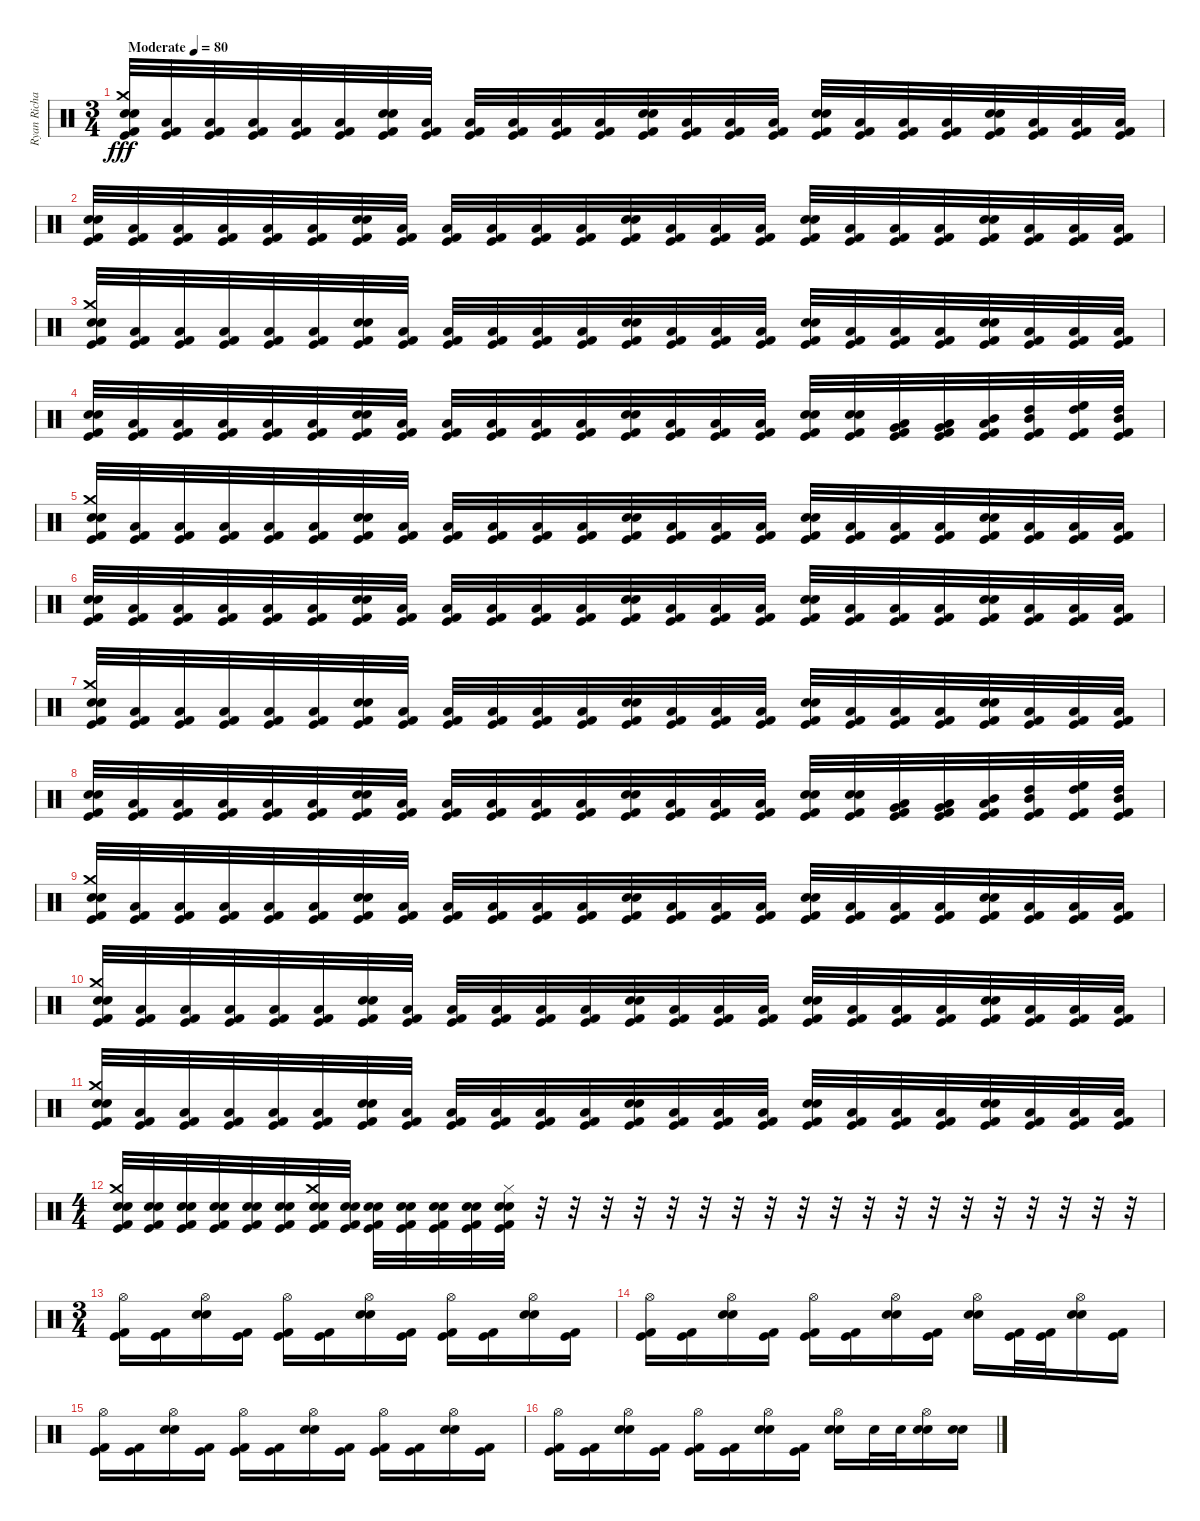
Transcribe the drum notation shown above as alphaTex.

\track ("Ryan Richards" "Ryan Richa") {instrument percussion}
\staff {score}
\articulation defaults
\ts (3 4)
\tempo (80 "Moderate")
\clef neutral
\ks c
("Kick (hit)" "Crash medium (hit)" "Snare (hit) 2" "Electric Snare (hit)" "Kick (hit) 2").32{dy fff} ("Kick (hit)" "Low Floor Tom (hit)" "Kick (hit) 2").32 ("Kick (hit)" "Low Floor Tom (hit)" "Kick (hit) 2").32 ("Kick (hit)" "Low Floor Tom (hit)" "Kick (hit) 2").32 ("Kick (hit)" "Low Floor Tom (hit)" "Kick (hit) 2").32 ("Kick (hit)" "Low Floor Tom (hit)" "Kick (hit) 2").32 ("Kick (hit)" "Snare (hit) 2" "Electric Snare (hit)" "Kick (hit) 2").32 ("Kick (hit)" "Low Floor Tom (hit)" "Kick (hit) 2").32 ("Kick (hit)" "Low Floor Tom (hit)" "Kick (hit) 2").32 ("Kick (hit)" "Low Floor Tom (hit)" "Kick (hit) 2").32 ("Kick (hit)" "Low Floor Tom (hit)" "Kick (hit) 2").32 ("Kick (hit)" "Low Floor Tom (hit)" "Kick (hit) 2").32 ("Kick (hit)" "Snare (hit) 2" "Electric Snare (hit)" "Kick (hit) 2").32 ("Kick (hit)" "Low Floor Tom (hit)" "Kick (hit) 2").32 ("Kick (hit)" "Low Floor Tom (hit)" "Kick (hit) 2").32 ("Kick (hit)" "Low Floor Tom (hit)" "Kick (hit) 2").32 ("Kick (hit)" "Snare (hit) 2" "Electric Snare (hit)" "Kick (hit) 2").32 ("Kick (hit)" "Low Floor Tom (hit)" "Kick (hit) 2").32 ("Kick (hit)" "Low Floor Tom (hit)" "Kick (hit) 2").32 ("Kick (hit)" "Low Floor Tom (hit)" "Kick (hit) 2").32 ("Kick (hit)" "Snare (hit) 2" "Electric Snare (hit)" "Kick (hit) 2").32 ("Kick (hit)" "Low Floor Tom (hit)" "Kick (hit) 2").32 ("Kick (hit)" "Low Floor Tom (hit)" "Kick (hit) 2").32 ("Kick (hit)" "Low Floor Tom (hit)" "Kick (hit) 2").32 |
("Kick (hit)" "Snare (hit) 2" "Electric Snare (hit)" "Kick (hit) 2").32 ("Kick (hit)" "Low Floor Tom (hit)" "Kick (hit) 2").32 ("Kick (hit)" "Low Floor Tom (hit)" "Kick (hit) 2").32 ("Kick (hit)" "Low Floor Tom (hit)" "Kick (hit) 2").32 ("Kick (hit)" "Low Floor Tom (hit)" "Kick (hit) 2").32 ("Kick (hit)" "Low Floor Tom (hit)" "Kick (hit) 2").32 ("Kick (hit)" "Snare (hit) 2" "Electric Snare (hit)" "Kick (hit) 2").32 ("Kick (hit)" "Low Floor Tom (hit)" "Kick (hit) 2").32 ("Kick (hit)" "Low Floor Tom (hit)" "Kick (hit) 2").32 ("Kick (hit)" "Low Floor Tom (hit)" "Kick (hit) 2").32 ("Kick (hit)" "Low Floor Tom (hit)" "Kick (hit) 2").32 ("Kick (hit)" "Low Floor Tom (hit)" "Kick (hit) 2").32 ("Kick (hit)" "Snare (hit) 2" "Electric Snare (hit)" "Kick (hit) 2").32 ("Kick (hit)" "Low Floor Tom (hit)" "Kick (hit) 2").32 ("Kick (hit)" "Low Floor Tom (hit)" "Kick (hit) 2").32 ("Kick (hit)" "Low Floor Tom (hit)" "Kick (hit) 2").32 ("Kick (hit)" "Snare (hit) 2" "Electric Snare (hit)" "Kick (hit) 2").32 ("Kick (hit)" "Low Floor Tom (hit)" "Kick (hit) 2").32 ("Kick (hit)" "Low Floor Tom (hit)" "Kick (hit) 2").32 ("Kick (hit)" "Low Floor Tom (hit)" "Kick (hit) 2").32 ("Kick (hit)" "Snare (hit) 2" "Electric Snare (hit)" "Kick (hit) 2").32 ("Kick (hit)" "Low Floor Tom (hit)" "Kick (hit) 2").32 ("Kick (hit)" "Low Floor Tom (hit)" "Kick (hit) 2").32 ("Kick (hit)" "Low Floor Tom (hit)" "Kick (hit) 2").32 |
("Kick (hit)" "Crash medium (hit)" "Snare (hit) 2" "Electric Snare (hit)" "Kick (hit) 2").32 ("Kick (hit)" "Low Floor Tom (hit)" "Kick (hit) 2").32 ("Kick (hit)" "Low Floor Tom (hit)" "Kick (hit) 2").32 ("Kick (hit)" "Low Floor Tom (hit)" "Kick (hit) 2").32 ("Kick (hit)" "Low Floor Tom (hit)" "Kick (hit) 2").32 ("Kick (hit)" "Low Floor Tom (hit)" "Kick (hit) 2").32 ("Kick (hit)" "Snare (hit) 2" "Electric Snare (hit)" "Kick (hit) 2").32 ("Kick (hit)" "Low Floor Tom (hit)" "Kick (hit) 2").32 ("Kick (hit)" "Low Floor Tom (hit)" "Kick (hit) 2").32 ("Kick (hit)" "Low Floor Tom (hit)" "Kick (hit) 2").32 ("Kick (hit)" "Low Floor Tom (hit)" "Kick (hit) 2").32 ("Kick (hit)" "Low Floor Tom (hit)" "Kick (hit) 2").32 ("Kick (hit)" "Snare (hit) 2" "Electric Snare (hit)" "Kick (hit) 2").32 ("Kick (hit)" "Low Floor Tom (hit)" "Kick (hit) 2").32 ("Kick (hit)" "Low Floor Tom (hit)" "Kick (hit) 2").32 ("Kick (hit)" "Low Floor Tom (hit)" "Kick (hit) 2").32 ("Kick (hit)" "Snare (hit) 2" "Electric Snare (hit)" "Kick (hit) 2").32 ("Kick (hit)" "Low Floor Tom (hit)" "Kick (hit) 2").32 ("Kick (hit)" "Low Floor Tom (hit)" "Kick (hit) 2").32 ("Kick (hit)" "Low Floor Tom (hit)" "Kick (hit) 2").32 ("Kick (hit)" "Snare (hit) 2" "Electric Snare (hit)" "Kick (hit) 2").32 ("Kick (hit)" "Low Floor Tom (hit)" "Kick (hit) 2").32 ("Kick (hit)" "Low Floor Tom (hit)" "Kick (hit) 2").32 ("Kick (hit)" "Low Floor Tom (hit)" "Kick (hit) 2").32 |
("Kick (hit)" "Snare (hit) 2" "Electric Snare (hit)" "Kick (hit) 2").32 ("Kick (hit)" "Low Floor Tom (hit)" "Kick (hit) 2").32 ("Kick (hit)" "Low Floor Tom (hit)" "Kick (hit) 2").32 ("Kick (hit)" "Low Floor Tom (hit)" "Kick (hit) 2").32 ("Kick (hit)" "Low Floor Tom (hit)" "Kick (hit) 2").32 ("Kick (hit)" "Low Floor Tom (hit)" "Kick (hit) 2").32 ("Kick (hit)" "Snare (hit) 2" "Electric Snare (hit)" "Kick (hit) 2").32 ("Kick (hit)" "Low Floor Tom (hit)" "Kick (hit) 2").32 ("Kick (hit)" "Low Floor Tom (hit)" "Kick (hit) 2").32 ("Kick (hit)" "Low Floor Tom (hit)" "Kick (hit) 2").32 ("Kick (hit)" "Low Floor Tom (hit)" "Kick (hit) 2").32 ("Kick (hit)" "Low Floor Tom (hit)" "Kick (hit) 2").32 ("Kick (hit)" "Snare (hit) 2" "Electric Snare (hit)" "Kick (hit) 2").32 ("Kick (hit)" "Low Floor Tom (hit)" "Kick (hit) 2").32 ("Kick (hit)" "Low Floor Tom (hit)" "Kick (hit) 2").32 ("Kick (hit)" "Low Floor Tom (hit)" "Kick (hit) 2").32 ("Kick (hit)" "Snare (hit) 2" "Electric Snare (hit)" "Kick (hit) 2").32 ("Kick (hit)" "Snare (hit) 2" "Electric Snare (hit)" "Kick (hit) 2").32 ("Kick (hit)" "Very Low Tom (hit)" "Low Floor Tom (hit)" "Kick (hit) 2").32 ("Kick (hit)" "Low Tom (hit)" "Very Low Tom (hit)" "Kick (hit) 2").32 ("Kick (hit)" "Mid Tom (hit)" "Low Tom (hit)" "Kick (hit) 2").32 ("Kick (hit)" "High Tom (hit)" "Mid Tom (hit)" "Kick (hit) 2").32 ("Kick (hit)" "High Floor Tom (hit)" "High Tom (hit)" "Kick (hit) 2").32 ("Kick (hit)" "High Tom (hit)" "Mid Tom (hit)" "Kick (hit) 2").32 |
("Kick (hit)" "Crash medium (hit)" "Snare (hit) 2" "Electric Snare (hit)" "Kick (hit) 2").32 ("Kick (hit)" "Low Floor Tom (hit)" "Kick (hit) 2").32 ("Kick (hit)" "Low Floor Tom (hit)" "Kick (hit) 2").32 ("Kick (hit)" "Low Floor Tom (hit)" "Kick (hit) 2").32 ("Kick (hit)" "Low Floor Tom (hit)" "Kick (hit) 2").32 ("Kick (hit)" "Low Floor Tom (hit)" "Kick (hit) 2").32 ("Kick (hit)" "Snare (hit) 2" "Electric Snare (hit)" "Kick (hit) 2").32 ("Kick (hit)" "Low Floor Tom (hit)" "Kick (hit) 2").32 ("Kick (hit)" "Low Floor Tom (hit)" "Kick (hit) 2").32 ("Kick (hit)" "Low Floor Tom (hit)" "Kick (hit) 2").32 ("Kick (hit)" "Low Floor Tom (hit)" "Kick (hit) 2").32 ("Kick (hit)" "Low Floor Tom (hit)" "Kick (hit) 2").32 ("Kick (hit)" "Snare (hit) 2" "Electric Snare (hit)" "Kick (hit) 2").32 ("Kick (hit)" "Low Floor Tom (hit)" "Kick (hit) 2").32 ("Kick (hit)" "Low Floor Tom (hit)" "Kick (hit) 2").32 ("Kick (hit)" "Low Floor Tom (hit)" "Kick (hit) 2").32 ("Kick (hit)" "Snare (hit) 2" "Electric Snare (hit)" "Kick (hit) 2").32 ("Kick (hit)" "Low Floor Tom (hit)" "Kick (hit) 2").32 ("Kick (hit)" "Low Floor Tom (hit)" "Kick (hit) 2").32 ("Kick (hit)" "Low Floor Tom (hit)" "Kick (hit) 2").32 ("Kick (hit)" "Snare (hit) 2" "Electric Snare (hit)" "Kick (hit) 2").32 ("Kick (hit)" "Low Floor Tom (hit)" "Kick (hit) 2").32 ("Kick (hit)" "Low Floor Tom (hit)" "Kick (hit) 2").32 ("Kick (hit)" "Low Floor Tom (hit)" "Kick (hit) 2").32 |
("Kick (hit)" "Snare (hit) 2" "Electric Snare (hit)" "Kick (hit) 2").32 ("Kick (hit)" "Low Floor Tom (hit)" "Kick (hit) 2").32 ("Kick (hit)" "Low Floor Tom (hit)" "Kick (hit) 2").32 ("Kick (hit)" "Low Floor Tom (hit)" "Kick (hit) 2").32 ("Kick (hit)" "Low Floor Tom (hit)" "Kick (hit) 2").32 ("Kick (hit)" "Low Floor Tom (hit)" "Kick (hit) 2").32 ("Kick (hit)" "Snare (hit) 2" "Electric Snare (hit)" "Kick (hit) 2").32 ("Kick (hit)" "Low Floor Tom (hit)" "Kick (hit) 2").32 ("Kick (hit)" "Low Floor Tom (hit)" "Kick (hit) 2").32 ("Kick (hit)" "Low Floor Tom (hit)" "Kick (hit) 2").32 ("Kick (hit)" "Low Floor Tom (hit)" "Kick (hit) 2").32 ("Kick (hit)" "Low Floor Tom (hit)" "Kick (hit) 2").32 ("Kick (hit)" "Snare (hit) 2" "Electric Snare (hit)" "Kick (hit) 2").32 ("Kick (hit)" "Low Floor Tom (hit)" "Kick (hit) 2").32 ("Kick (hit)" "Low Floor Tom (hit)" "Kick (hit) 2").32 ("Kick (hit)" "Low Floor Tom (hit)" "Kick (hit) 2").32 ("Kick (hit)" "Snare (hit) 2" "Electric Snare (hit)" "Kick (hit) 2").32 ("Kick (hit)" "Low Floor Tom (hit)" "Kick (hit) 2").32 ("Kick (hit)" "Low Floor Tom (hit)" "Kick (hit) 2").32 ("Kick (hit)" "Low Floor Tom (hit)" "Kick (hit) 2").32 ("Kick (hit)" "Snare (hit) 2" "Electric Snare (hit)" "Kick (hit) 2").32 ("Kick (hit)" "Low Floor Tom (hit)" "Kick (hit) 2").32 ("Kick (hit)" "Low Floor Tom (hit)" "Kick (hit) 2").32 ("Kick (hit)" "Low Floor Tom (hit)" "Kick (hit) 2").32 |
("Kick (hit)" "Crash medium (hit)" "Snare (hit) 2" "Electric Snare (hit)" "Kick (hit) 2").32 ("Kick (hit)" "Low Floor Tom (hit)" "Kick (hit) 2").32 ("Kick (hit)" "Low Floor Tom (hit)" "Kick (hit) 2").32 ("Kick (hit)" "Low Floor Tom (hit)" "Kick (hit) 2").32 ("Kick (hit)" "Low Floor Tom (hit)" "Kick (hit) 2").32 ("Kick (hit)" "Low Floor Tom (hit)" "Kick (hit) 2").32 ("Kick (hit)" "Snare (hit) 2" "Electric Snare (hit)" "Kick (hit) 2").32 ("Kick (hit)" "Low Floor Tom (hit)" "Kick (hit) 2").32 ("Kick (hit)" "Low Floor Tom (hit)" "Kick (hit) 2").32 ("Kick (hit)" "Low Floor Tom (hit)" "Kick (hit) 2").32 ("Kick (hit)" "Low Floor Tom (hit)" "Kick (hit) 2").32 ("Kick (hit)" "Low Floor Tom (hit)" "Kick (hit) 2").32 ("Kick (hit)" "Snare (hit) 2" "Electric Snare (hit)" "Kick (hit) 2").32 ("Kick (hit)" "Low Floor Tom (hit)" "Kick (hit) 2").32 ("Kick (hit)" "Low Floor Tom (hit)" "Kick (hit) 2").32 ("Kick (hit)" "Low Floor Tom (hit)" "Kick (hit) 2").32 ("Kick (hit)" "Snare (hit) 2" "Electric Snare (hit)" "Kick (hit) 2").32 ("Kick (hit)" "Low Floor Tom (hit)" "Kick (hit) 2").32 ("Kick (hit)" "Low Floor Tom (hit)" "Kick (hit) 2").32 ("Kick (hit)" "Low Floor Tom (hit)" "Kick (hit) 2").32 ("Kick (hit)" "Snare (hit) 2" "Electric Snare (hit)" "Kick (hit) 2").32 ("Kick (hit)" "Low Floor Tom (hit)" "Kick (hit) 2").32 ("Kick (hit)" "Low Floor Tom (hit)" "Kick (hit) 2").32 ("Kick (hit)" "Low Floor Tom (hit)" "Kick (hit) 2").32 |
("Kick (hit)" "Snare (hit) 2" "Electric Snare (hit)" "Kick (hit) 2").32 ("Kick (hit)" "Low Floor Tom (hit)" "Kick (hit) 2").32 ("Kick (hit)" "Low Floor Tom (hit)" "Kick (hit) 2").32 ("Kick (hit)" "Low Floor Tom (hit)" "Kick (hit) 2").32 ("Kick (hit)" "Low Floor Tom (hit)" "Kick (hit) 2").32 ("Kick (hit)" "Low Floor Tom (hit)" "Kick (hit) 2").32 ("Kick (hit)" "Snare (hit) 2" "Electric Snare (hit)" "Kick (hit) 2").32 ("Kick (hit)" "Low Floor Tom (hit)" "Kick (hit) 2").32 ("Kick (hit)" "Low Floor Tom (hit)" "Kick (hit) 2").32 ("Kick (hit)" "Low Floor Tom (hit)" "Kick (hit) 2").32 ("Kick (hit)" "Low Floor Tom (hit)" "Kick (hit) 2").32 ("Kick (hit)" "Low Floor Tom (hit)" "Kick (hit) 2").32 ("Kick (hit)" "Snare (hit) 2" "Electric Snare (hit)" "Kick (hit) 2").32 ("Kick (hit)" "Low Floor Tom (hit)" "Kick (hit) 2").32 ("Kick (hit)" "Low Floor Tom (hit)" "Kick (hit) 2").32 ("Kick (hit)" "Low Floor Tom (hit)" "Kick (hit) 2").32 ("Kick (hit)" "Snare (hit) 2" "Electric Snare (hit)" "Kick (hit) 2").32 ("Kick (hit)" "Snare (hit) 2" "Electric Snare (hit)" "Kick (hit) 2").32 ("Kick (hit)" "Very Low Tom (hit)" "Low Floor Tom (hit)" "Kick (hit) 2").32 ("Kick (hit)" "Low Tom (hit)" "Very Low Tom (hit)" "Kick (hit) 2").32 ("Kick (hit)" "Mid Tom (hit)" "Low Tom (hit)" "Kick (hit) 2").32 ("Kick (hit)" "High Tom (hit)" "Mid Tom (hit)" "Kick (hit) 2").32 ("Kick (hit)" "High Floor Tom (hit)" "High Tom (hit)" "Kick (hit) 2").32 ("Kick (hit)" "High Tom (hit)" "Mid Tom (hit)" "Kick (hit) 2").32 |
("Kick (hit)" "Crash medium (hit)" "Snare (hit) 2" "Electric Snare (hit)" "Kick (hit) 2").32 ("Kick (hit)" "Low Floor Tom (hit)" "Kick (hit) 2").32 ("Kick (hit)" "Low Floor Tom (hit)" "Kick (hit) 2").32 ("Kick (hit)" "Low Floor Tom (hit)" "Kick (hit) 2").32 ("Kick (hit)" "Low Floor Tom (hit)" "Kick (hit) 2").32 ("Kick (hit)" "Low Floor Tom (hit)" "Kick (hit) 2").32 ("Kick (hit)" "Snare (hit) 2" "Electric Snare (hit)" "Kick (hit) 2").32 ("Kick (hit)" "Low Floor Tom (hit)" "Kick (hit) 2").32 ("Kick (hit)" "Low Floor Tom (hit)" "Kick (hit) 2").32 ("Kick (hit)" "Low Floor Tom (hit)" "Kick (hit) 2").32 ("Kick (hit)" "Low Floor Tom (hit)" "Kick (hit) 2").32 ("Kick (hit)" "Low Floor Tom (hit)" "Kick (hit) 2").32 ("Kick (hit)" "Snare (hit) 2" "Electric Snare (hit)" "Kick (hit) 2").32 ("Kick (hit)" "Low Floor Tom (hit)" "Kick (hit) 2").32 ("Kick (hit)" "Low Floor Tom (hit)" "Kick (hit) 2").32 ("Kick (hit)" "Low Floor Tom (hit)" "Kick (hit) 2").32 ("Kick (hit)" "Snare (hit) 2" "Electric Snare (hit)" "Kick (hit) 2").32 ("Kick (hit)" "Low Floor Tom (hit)" "Kick (hit) 2").32 ("Kick (hit)" "Low Floor Tom (hit)" "Kick (hit) 2").32 ("Kick (hit)" "Low Floor Tom (hit)" "Kick (hit) 2").32 ("Kick (hit)" "Snare (hit) 2" "Electric Snare (hit)" "Kick (hit) 2").32 ("Kick (hit)" "Low Floor Tom (hit)" "Kick (hit) 2").32 ("Kick (hit)" "Low Floor Tom (hit)" "Kick (hit) 2").32 ("Kick (hit)" "Low Floor Tom (hit)" "Kick (hit) 2").32 |
("Kick (hit)" "Crash medium (hit)" "Snare (hit) 2" "Electric Snare (hit)" "Kick (hit) 2").32 ("Kick (hit)" "Low Floor Tom (hit)" "Kick (hit) 2").32 ("Kick (hit)" "Low Floor Tom (hit)" "Kick (hit) 2").32 ("Kick (hit)" "Low Floor Tom (hit)" "Kick (hit) 2").32 ("Kick (hit)" "Low Floor Tom (hit)" "Kick (hit) 2").32 ("Kick (hit)" "Low Floor Tom (hit)" "Kick (hit) 2").32 ("Kick (hit)" "Snare (hit) 2" "Electric Snare (hit)" "Kick (hit) 2").32 ("Kick (hit)" "Low Floor Tom (hit)" "Kick (hit) 2").32 ("Kick (hit)" "Low Floor Tom (hit)" "Kick (hit) 2").32 ("Kick (hit)" "Low Floor Tom (hit)" "Kick (hit) 2").32 ("Kick (hit)" "Low Floor Tom (hit)" "Kick (hit) 2").32 ("Kick (hit)" "Low Floor Tom (hit)" "Kick (hit) 2").32 ("Kick (hit)" "Snare (hit) 2" "Electric Snare (hit)" "Kick (hit) 2").32 ("Kick (hit)" "Low Floor Tom (hit)" "Kick (hit) 2").32 ("Kick (hit)" "Low Floor Tom (hit)" "Kick (hit) 2").32 ("Kick (hit)" "Low Floor Tom (hit)" "Kick (hit) 2").32 ("Kick (hit)" "Snare (hit) 2" "Electric Snare (hit)" "Kick (hit) 2").32 ("Kick (hit)" "Low Floor Tom (hit)" "Kick (hit) 2").32 ("Kick (hit)" "Low Floor Tom (hit)" "Kick (hit) 2").32 ("Kick (hit)" "Low Floor Tom (hit)" "Kick (hit) 2").32 ("Kick (hit)" "Snare (hit) 2" "Electric Snare (hit)" "Kick (hit) 2").32 ("Kick (hit)" "Low Floor Tom (hit)" "Kick (hit) 2").32 ("Kick (hit)" "Low Floor Tom (hit)" "Kick (hit) 2").32 ("Kick (hit)" "Low Floor Tom (hit)" "Kick (hit) 2").32 |
("Kick (hit)" "Crash medium (hit)" "Snare (hit) 2" "Electric Snare (hit)" "Kick (hit) 2").32 ("Kick (hit)" "Low Floor Tom (hit)" "Kick (hit) 2").32 ("Kick (hit)" "Low Floor Tom (hit)" "Kick (hit) 2").32 ("Kick (hit)" "Low Floor Tom (hit)" "Kick (hit) 2").32 ("Kick (hit)" "Low Floor Tom (hit)" "Kick (hit) 2").32 ("Kick (hit)" "Low Floor Tom (hit)" "Kick (hit) 2").32 ("Kick (hit)" "Snare (hit) 2" "Electric Snare (hit)" "Kick (hit) 2").32 ("Kick (hit)" "Low Floor Tom (hit)" "Kick (hit) 2").32 ("Kick (hit)" "Low Floor Tom (hit)" "Kick (hit) 2").32 ("Kick (hit)" "Low Floor Tom (hit)" "Kick (hit) 2").32 ("Kick (hit)" "Low Floor Tom (hit)" "Kick (hit) 2").32 ("Kick (hit)" "Low Floor Tom (hit)" "Kick (hit) 2").32 ("Kick (hit)" "Snare (hit) 2" "Electric Snare (hit)" "Kick (hit) 2").32 ("Kick (hit)" "Low Floor Tom (hit)" "Kick (hit) 2").32 ("Kick (hit)" "Low Floor Tom (hit)" "Kick (hit) 2").32 ("Kick (hit)" "Low Floor Tom (hit)" "Kick (hit) 2").32 ("Kick (hit)" "Snare (hit) 2" "Electric Snare (hit)" "Kick (hit) 2").32 ("Kick (hit)" "Low Floor Tom (hit)" "Kick (hit) 2").32 ("Kick (hit)" "Low Floor Tom (hit)" "Kick (hit) 2").32 ("Kick (hit)" "Low Floor Tom (hit)" "Kick (hit) 2").32 ("Kick (hit)" "Snare (hit) 2" "Electric Snare (hit)" "Kick (hit) 2").32 ("Kick (hit)" "Low Floor Tom (hit)" "Kick (hit) 2").32 ("Kick (hit)" "Low Floor Tom (hit)" "Kick (hit) 2").32 ("Kick (hit)" "Low Floor Tom (hit)" "Kick (hit) 2").32 |
\ts (4 4)
("Kick (hit)" "Crash medium (hit)" "Snare (hit) 2" "Electric Snare (hit)" "Kick (hit) 2").32 ("Kick (hit)" "Snare (hit) 2" "Electric Snare (hit)" "Kick (hit) 2").32 ("Kick (hit)" "Snare (hit) 2" "Electric Snare (hit)" "Kick (hit) 2").32 ("Kick (hit)" "Snare (hit) 2" "Electric Snare (hit)" "Kick (hit) 2").32 ("Kick (hit)" "Snare (hit) 2" "Electric Snare (hit)" "Kick (hit) 2").32 ("Kick (hit)" "Snare (hit) 2" "Electric Snare (hit)" "Kick (hit) 2").32 ("Kick (hit)" "Crash medium (hit)" "Snare (hit) 2" "Electric Snare (hit)" "Kick (hit) 2").32 ("Kick (hit)" "Snare (hit) 2" "Electric Snare (hit)" "Kick (hit) 2").32 ("Kick (hit)" "Snare (hit) 2" "Electric Snare (hit)" "Kick (hit) 2").32 ("Kick (hit)" "Snare (hit) 2" "Electric Snare (hit)" "Kick (hit) 2").32 ("Kick (hit)" "Snare (hit) 2" "Electric Snare (hit)" "Kick (hit) 2").32 ("Kick (hit)" "Snare (hit) 2" "Electric Snare (hit)" "Kick (hit) 2").32 ("Kick (hit)" "Hi-Hat (closed)" "Snare (hit) 2" "Electric Snare (hit)" "Kick (hit) 2").32 r.32 r.32 r.32 r.32 r.32 r.32 r.32 r.32 r.32 r.32 r.32 r.32 r.32 r.32 r.32 r.32 r.32 r.32 r.32 |
\ts (3 4)
("Kick (hit)" "Hi-Hat (open)" "Kick (hit) 2").16 ("Kick (hit)" "Kick (hit) 2").16 ("Hi-Hat (open)" "Snare (hit) 2" "Electric Snare (hit)").16 ("Kick (hit)" "Kick (hit) 2").16 ("Kick (hit)" "Hi-Hat (open)" "Kick (hit) 2").16 ("Kick (hit)" "Kick (hit) 2").16 ("Hi-Hat (open)" "Snare (hit) 2" "Electric Snare (hit)").16 ("Kick (hit)" "Kick (hit) 2").16 ("Kick (hit)" "Hi-Hat (open)" "Kick (hit) 2").16 ("Kick (hit)" "Kick (hit) 2").16 ("Hi-Hat (open)" "Snare (hit) 2" "Electric Snare (hit)").16 ("Kick (hit)" "Kick (hit) 2").16 |
("Kick (hit)" "Hi-Hat (open)" "Kick (hit) 2").16 ("Kick (hit)" "Kick (hit) 2").16 ("Hi-Hat (open)" "Snare (hit) 2" "Electric Snare (hit)").16 ("Kick (hit)" "Kick (hit) 2").16 ("Kick (hit)" "Hi-Hat (open)" "Kick (hit) 2").16 ("Kick (hit)" "Kick (hit) 2").16 ("Hi-Hat (open)" "Snare (hit) 2" "Electric Snare (hit)").16 ("Kick (hit)" "Kick (hit) 2").16 ("Hi-Hat (open)" "Snare (hit) 2" "Electric Snare (hit)").16 ("Kick (hit)" "Kick (hit) 2").32 ("Kick (hit)" "Kick (hit) 2").32 ("Hi-Hat (open)" "Snare (hit) 2" "Electric Snare (hit)").16 ("Kick (hit)" "Kick (hit) 2").16 |
("Kick (hit)" "Hi-Hat (open)" "Kick (hit) 2").16 ("Kick (hit)" "Kick (hit) 2").16 ("Hi-Hat (open)" "Snare (hit) 2" "Electric Snare (hit)").16 ("Kick (hit)" "Kick (hit) 2").16 ("Kick (hit)" "Hi-Hat (open)" "Kick (hit) 2").16 ("Kick (hit)" "Kick (hit) 2").16 ("Hi-Hat (open)" "Snare (hit) 2" "Electric Snare (hit)").16 ("Kick (hit)" "Kick (hit) 2").16 ("Kick (hit)" "Hi-Hat (open)" "Kick (hit) 2").16 ("Kick (hit)" "Kick (hit) 2").16 ("Hi-Hat (open)" "Snare (hit) 2" "Electric Snare (hit)").16 ("Kick (hit)" "Kick (hit) 2").16 |
("Kick (hit)" "Hi-Hat (open)" "Kick (hit) 2").16 ("Kick (hit)" "Kick (hit) 2").16 ("Hi-Hat (open)" "Snare (hit) 2" "Electric Snare (hit)").16 ("Kick (hit)" "Kick (hit) 2").16 ("Kick (hit)" "Hi-Hat (open)" "Kick (hit) 2").16 ("Kick (hit)" "Kick (hit) 2").16 ("Hi-Hat (open)" "Snare (hit) 2" "Electric Snare (hit)").16 ("Kick (hit)" "Kick (hit) 2").16 ("Hi-Hat (open)" "Snare (hit) 2" "Electric Snare (hit)").16 "Electric Snare (hit)".32 "Electric Snare (hit)".32 ("Hi-Hat (open)" "Snare (hit) 2" "Electric Snare (hit)").16 ("Snare (hit) 2" "Electric Snare (hit)").16
